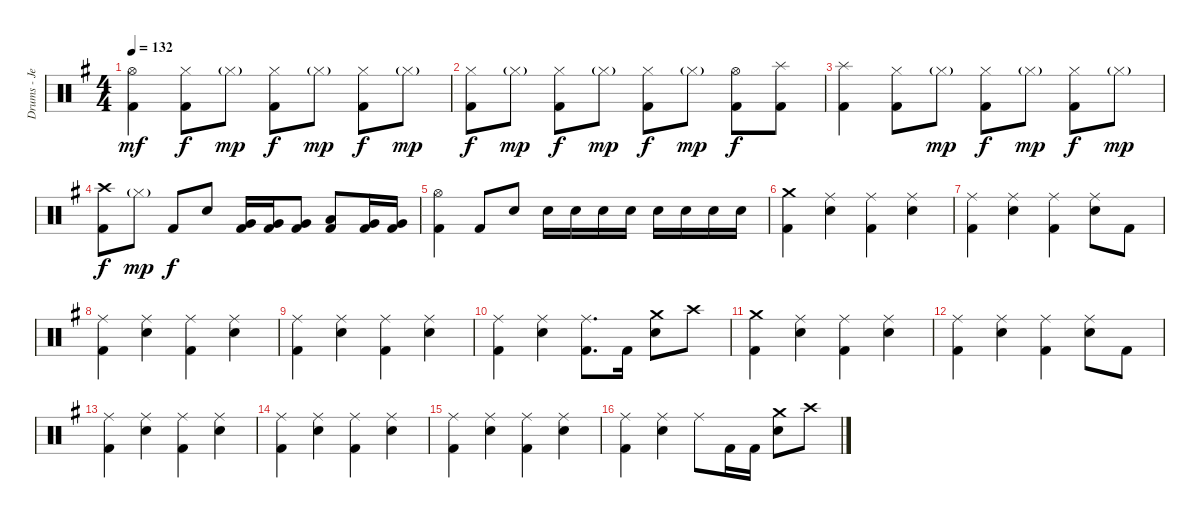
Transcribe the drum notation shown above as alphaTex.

\track ("Drums - Jeroen Simons " "Drums - Je") {instrument percussion}
\staff {score}
\articulation defaults
\ts (4 4)
\tempo 132
\clef neutral
\ks g
("Hi-Hat (open)" "Kick (hit) 2").4{dy mf} ("Hi-Hat (closed)" "Kick (hit) 2").8{dy f} "Hi-Hat (closed)"{g}.8{dy mp} ("Hi-Hat (closed)" "Kick (hit) 2").8{dy f} "Hi-Hat (closed)"{g}.8{dy mp} ("Hi-Hat (closed)" "Kick (hit) 2").8{dy f} "Hi-Hat (closed)"{g}.8{dy mp} |
("Hi-Hat (closed)" "Kick (hit) 2").8{dy f} "Hi-Hat (closed)"{g}.8{dy mp} ("Hi-Hat (closed)" "Kick (hit) 2").8{dy f} "Hi-Hat (closed)"{g}.8{dy mp} ("Hi-Hat (closed)" "Kick (hit) 2").8{dy f} "Hi-Hat (closed)"{g}.8{dy mp} ("Hi-Hat (open)" "Kick (hit) 2").8{dy f} ("Splash (hit)" "Kick (hit) 2").8 |
("Splash (hit)" "Kick (hit) 2").4 ("Hi-Hat (closed)" "Kick (hit) 2").8 "Hi-Hat (closed)"{g}.8{dy mp} ("Hi-Hat (closed)" "Kick (hit) 2").8{dy f} "Hi-Hat (closed)"{g}.8{dy mp} ("Hi-Hat (closed)" "Kick (hit) 2").8{dy f} "Hi-Hat (closed)"{g}.8{dy mp} |
("Crash high (hit)" "Kick (hit) 2").8{dy f} "Hi-Hat (closed)"{g}.8{dy mp} "Kick (hit) 2".8{dy f} "Electric Snare (hit)".8 ("Very Low Tom (hit)" "Kick (hit) 2").16 ("Very Low Tom (hit)" "Kick (hit) 2").16 ("Very Low Tom (hit)" "Kick (hit) 2").8 ("Low Tom (hit)" "Kick (hit) 2").8 ("Very Low Tom (hit)" "Kick (hit) 2").16 ("Very Low Tom (hit)" "Kick (hit) 2").16 |
("Hi-Hat (open)" "Kick (hit) 2").4 "Kick (hit) 2".8 "Electric Snare (hit)".8 "Electric Snare (hit)".16 "Electric Snare (hit)".16 "Electric Snare (hit)".16 "Electric Snare (hit)".16 "Electric Snare (hit)".16 "Electric Snare (hit)".16 "Electric Snare (hit)".16 "Electric Snare (hit)".16 |
("Crash medium (hit)" "Kick (hit) 2").4 ("Ride (middle)" "Electric Snare (hit)").4 ("Ride (middle)" "Kick (hit) 2").4 ("Ride (middle)" "Electric Snare (hit)").4 |
("Ride (middle)" "Kick (hit) 2").4 ("Ride (middle)" "Electric Snare (hit)").4 ("Ride (middle)" "Kick (hit) 2").4 ("Ride (middle)" "Electric Snare (hit)").8 "Kick (hit) 2".8 |
("Ride (middle)" "Kick (hit) 2").4 ("Ride (middle)" "Electric Snare (hit)").4 ("Ride (middle)" "Kick (hit) 2").4 ("Ride (middle)" "Electric Snare (hit)").4 |
("Ride (middle)" "Kick (hit) 2").4 ("Ride (middle)" "Electric Snare (hit)").4 ("Ride (middle)" "Kick (hit) 2").4 ("Ride (middle)" "Electric Snare (hit)").4 |
("Ride (middle)" "Kick (hit) 2").4 ("Ride (middle)" "Electric Snare (hit)").4 ("Ride (middle)" "Kick (hit) 2").8{d} "Kick (hit) 2".16 ("Crash medium (hit)" "Electric Snare (hit)").8 "Crash high (hit)".8 |
("Crash medium (hit)" "Kick (hit) 2").4 ("Ride (middle)" "Electric Snare (hit)").4 ("Ride (middle)" "Kick (hit) 2").4 ("Ride (middle)" "Electric Snare (hit)").4 |
("Ride (middle)" "Kick (hit) 2").4 ("Ride (middle)" "Electric Snare (hit)").4 ("Ride (middle)" "Kick (hit) 2").4 ("Ride (middle)" "Electric Snare (hit)").8 "Kick (hit) 2".8 |
("Ride (middle)" "Kick (hit) 2").4 ("Ride (middle)" "Electric Snare (hit)").4 ("Ride (middle)" "Kick (hit) 2").4 ("Ride (middle)" "Electric Snare (hit)").4 |
("Ride (middle)" "Kick (hit) 2").4 ("Ride (middle)" "Electric Snare (hit)").4 ("Ride (middle)" "Kick (hit) 2").4 ("Ride (middle)" "Electric Snare (hit)").4 |
("Ride (middle)" "Kick (hit) 2").4 ("Ride (middle)" "Electric Snare (hit)").4 ("Ride (middle)" "Kick (hit) 2").4 ("Ride (middle)" "Electric Snare (hit)").4 |
("Ride (middle)" "Kick (hit) 2").4 ("Ride (middle)" "Electric Snare (hit)").4 "Ride (middle)".8 "Kick (hit) 2".16 "Kick (hit) 2".16 ("Crash medium (hit)" "Electric Snare (hit)").8 "Crash high (hit)".8
